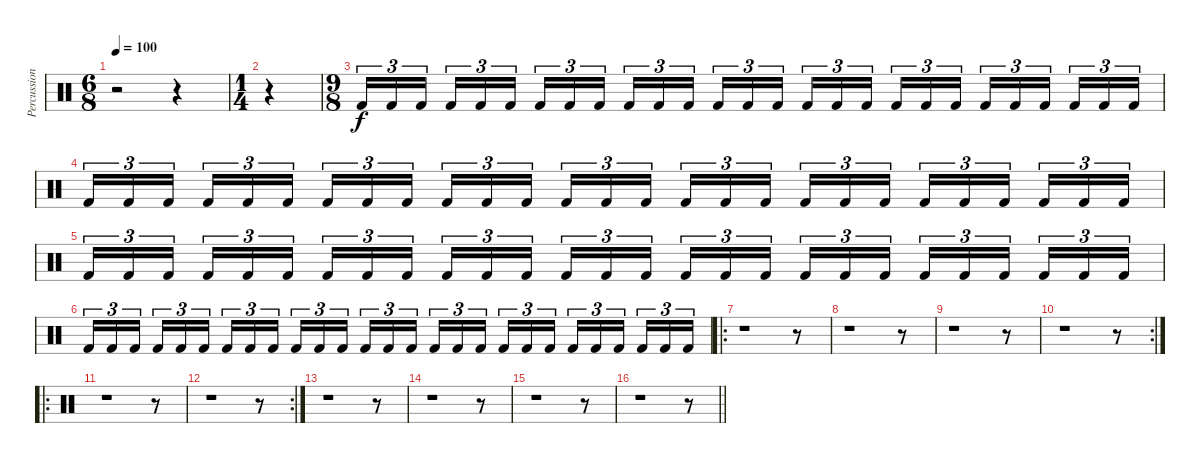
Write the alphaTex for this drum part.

\track ("Percussion" "Percussion") {instrument percussion}
\staff {score}
\articulation defaults
\ts (6 8)
\tempo 100
\clef neutral
\ks c
r.2{dy f} r.4 |
\ts (1 4)
r.4 |
\ts (9 8)
"Kick (hit) 2".16{tu (3 2)} "Kick (hit) 2".16{tu (3 2)} "Kick (hit) 2".16{tu (3 2)} "Kick (hit) 2".16{tu (3 2)} "Kick (hit) 2".16{tu (3 2)} "Kick (hit) 2".16{tu (3 2)} "Kick (hit) 2".16{tu (3 2)} "Kick (hit) 2".16{tu (3 2)} "Kick (hit) 2".16{tu (3 2)} "Kick (hit) 2".16{tu (3 2)} "Kick (hit) 2".16{tu (3 2)} "Kick (hit) 2".16{tu (3 2)} "Kick (hit) 2".16{tu (3 2)} "Kick (hit) 2".16{tu (3 2)} "Kick (hit) 2".16{tu (3 2)} "Kick (hit) 2".16{tu (3 2)} "Kick (hit) 2".16{tu (3 2)} "Kick (hit) 2".16{tu (3 2)} "Kick (hit) 2".16{tu (3 2)} "Kick (hit) 2".16{tu (3 2)} "Kick (hit) 2".16{tu (3 2)} "Kick (hit) 2".16{tu (3 2)} "Kick (hit) 2".16{tu (3 2)} "Kick (hit) 2".16{tu (3 2)} "Kick (hit) 2".16{tu (3 2)} "Kick (hit) 2".16{tu (3 2)} "Kick (hit) 2".16{tu (3 2)} |
"Kick (hit) 2".16{tu (3 2)} "Kick (hit) 2".16{tu (3 2)} "Kick (hit) 2".16{tu (3 2)} "Kick (hit) 2".16{tu (3 2)} "Kick (hit) 2".16{tu (3 2)} "Kick (hit) 2".16{tu (3 2)} "Kick (hit) 2".16{tu (3 2)} "Kick (hit) 2".16{tu (3 2)} "Kick (hit) 2".16{tu (3 2)} "Kick (hit) 2".16{tu (3 2)} "Kick (hit) 2".16{tu (3 2)} "Kick (hit) 2".16{tu (3 2)} "Kick (hit) 2".16{tu (3 2)} "Kick (hit) 2".16{tu (3 2)} "Kick (hit) 2".16{tu (3 2)} "Kick (hit) 2".16{tu (3 2)} "Kick (hit) 2".16{tu (3 2)} "Kick (hit) 2".16{tu (3 2)} "Kick (hit) 2".16{tu (3 2)} "Kick (hit) 2".16{tu (3 2)} "Kick (hit) 2".16{tu (3 2)} "Kick (hit) 2".16{tu (3 2)} "Kick (hit) 2".16{tu (3 2)} "Kick (hit) 2".16{tu (3 2)} "Kick (hit) 2".16{tu (3 2)} "Kick (hit) 2".16{tu (3 2)} "Kick (hit) 2".16{tu (3 2)} |
"Kick (hit) 2".16{tu (3 2)} "Kick (hit) 2".16{tu (3 2)} "Kick (hit) 2".16{tu (3 2)} "Kick (hit) 2".16{tu (3 2)} "Kick (hit) 2".16{tu (3 2)} "Kick (hit) 2".16{tu (3 2)} "Kick (hit) 2".16{tu (3 2)} "Kick (hit) 2".16{tu (3 2)} "Kick (hit) 2".16{tu (3 2)} "Kick (hit) 2".16{tu (3 2)} "Kick (hit) 2".16{tu (3 2)} "Kick (hit) 2".16{tu (3 2)} "Kick (hit) 2".16{tu (3 2)} "Kick (hit) 2".16{tu (3 2)} "Kick (hit) 2".16{tu (3 2)} "Kick (hit) 2".16{tu (3 2)} "Kick (hit) 2".16{tu (3 2)} "Kick (hit) 2".16{tu (3 2)} "Kick (hit) 2".16{tu (3 2)} "Kick (hit) 2".16{tu (3 2)} "Kick (hit) 2".16{tu (3 2)} "Kick (hit) 2".16{tu (3 2)} "Kick (hit) 2".16{tu (3 2)} "Kick (hit) 2".16{tu (3 2)} "Kick (hit) 2".16{tu (3 2)} "Kick (hit) 2".16{tu (3 2)} "Kick (hit) 2".16{tu (3 2)} |
"Kick (hit) 2".16{tu (3 2)} "Kick (hit) 2".16{tu (3 2)} "Kick (hit) 2".16{tu (3 2)} "Kick (hit) 2".16{tu (3 2)} "Kick (hit) 2".16{tu (3 2)} "Kick (hit) 2".16{tu (3 2)} "Kick (hit) 2".16{tu (3 2)} "Kick (hit) 2".16{tu (3 2)} "Kick (hit) 2".16{tu (3 2)} "Kick (hit) 2".16{tu (3 2)} "Kick (hit) 2".16{tu (3 2)} "Kick (hit) 2".16{tu (3 2)} "Kick (hit) 2".16{tu (3 2)} "Kick (hit) 2".16{tu (3 2)} "Kick (hit) 2".16{tu (3 2)} "Kick (hit) 2".16{tu (3 2)} "Kick (hit) 2".16{tu (3 2)} "Kick (hit) 2".16{tu (3 2)} "Kick (hit) 2".16{tu (3 2)} "Kick (hit) 2".16{tu (3 2)} "Kick (hit) 2".16{tu (3 2)} "Kick (hit) 2".16{tu (3 2)} "Kick (hit) 2".16{tu (3 2)} "Kick (hit) 2".16{tu (3 2)} "Kick (hit) 2".16{tu (3 2)} "Kick (hit) 2".16{tu (3 2)} "Kick (hit) 2".16{tu (3 2)} |
\ro
r.1 r.8 |
r.1 r.8 |
r.1 r.8 |
\rc 2
r.1 r.8 |
\ro
r.1 r.8 |
\rc 2
r.1 r.8 |
r.1 r.8 |
r.1 r.8 |
r.1 r.8 |
\barLineRight lightlight
r.1 r.8
